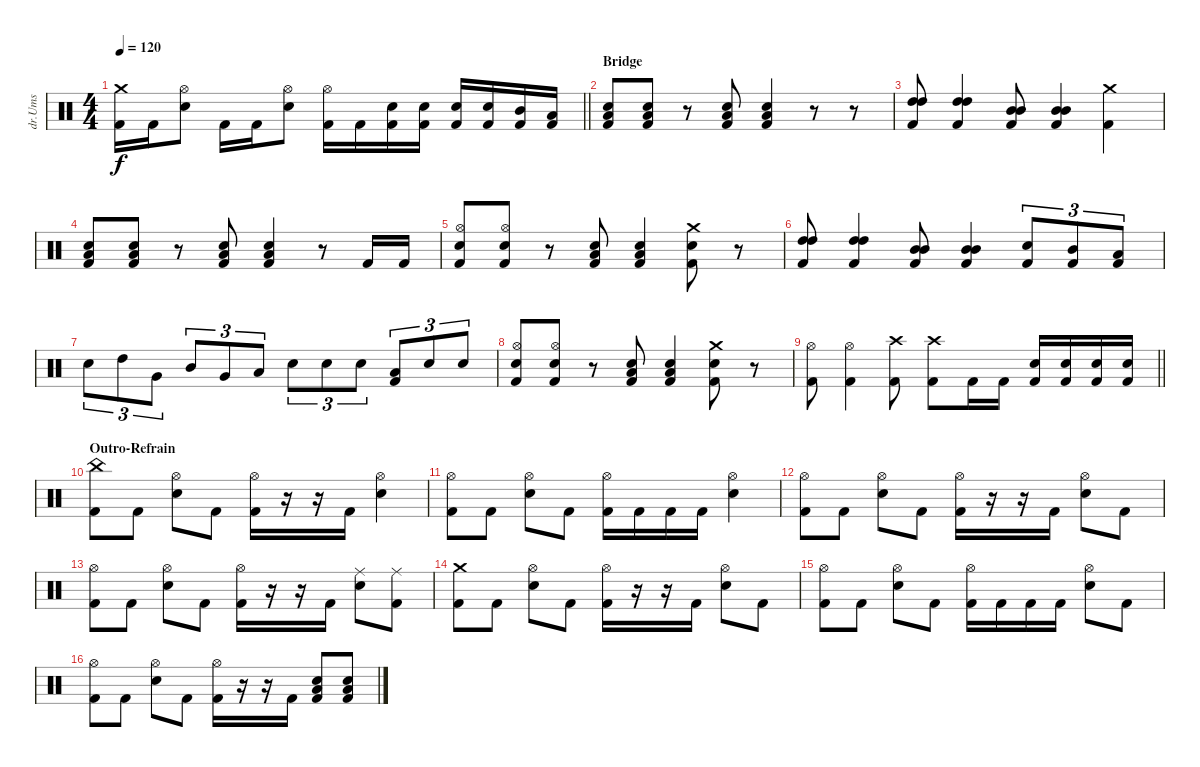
\track ("dr.Ums" "dr.Ums") {instrument percussion}
\staff {score}
\articulation defaults
\ts (4 4)
\tempo 120
\clef neutral
\barLineRight lightlight
\ks c
("Crash medium (hit)" "Kick (hit) 2").16{dy f} "Kick (hit) 2".16 ("Hi-Hat (open)" "Snare (hit) 2").8 "Kick (hit) 2".16 "Kick (hit) 2".16 ("Hi-Hat (open)" "Snare (hit) 2").8 ("Kick (hit) 2" "Hi-Hat (open)").16 "Kick (hit) 2".16 ("Snare (hit) 2" "Kick (hit) 2").16 ("Snare (hit) 2" "Kick (hit) 2").16 ("Snare (hit) 2" "Kick (hit) 2").16 ("Snare (hit) 2" "Kick (hit) 2").16 ("Mid Tom (hit)" "Kick (hit) 2").16 ("Low Tom (hit)" "Kick (hit) 2").16 |
\section ("" "Bridge")
("Snare (hit) 2" "Low Floor Tom (hit)" "Kick (hit) 2").8 ("Snare (hit) 2" "Low Floor Tom (hit)" "Kick (hit) 2").8 r.8 ("Snare (hit) 2" "Low Floor Tom (hit)" "Kick (hit) 2").8 ("Snare (hit) 2" "Low Floor Tom (hit)" "Kick (hit) 2").4 r.8 r.8 |
("High Tom (hit)" "High Tom (hit)" "Kick (hit) 2").8 ("High Tom (hit)" "High Tom (hit)" "Kick (hit) 2").4 ("Mid Tom (hit)" "Mid Tom (hit)" "Kick (hit) 2").8 ("Mid Tom (hit)" "Mid Tom (hit)" "Kick (hit) 2").4 ("Crash medium (hit)" "Kick (hit) 2").4 |
("Snare (hit) 2" "Low Floor Tom (hit)" "Kick (hit) 2").8 ("Snare (hit) 2" "Low Floor Tom (hit)" "Kick (hit) 2").8 r.8 ("Snare (hit) 2" "Low Floor Tom (hit)" "Kick (hit) 2").8 ("Snare (hit) 2" "Low Floor Tom (hit)" "Kick (hit) 2").4 r.8 "Kick (hit) 2".16 "Kick (hit) 2".16 |
("Snare (hit) 2" "Hi-Hat (open)" "Kick (hit) 2").8 ("Snare (hit) 2" "Hi-Hat (open)" "Kick (hit) 2").8 r.8 ("Snare (hit) 2" "Low Floor Tom (hit)" "Kick (hit) 2").8 ("Snare (hit) 2" "Low Floor Tom (hit)" "Kick (hit) 2").4 ("Crash medium (hit)" "Snare (hit) 2" "Kick (hit) 2").8 r.8 |
("High Tom (hit)" "High Tom (hit)" "Kick (hit) 2").8 ("High Tom (hit)" "High Tom (hit)" "Kick (hit) 2").4 ("Mid Tom (hit)" "Mid Tom (hit)" "Kick (hit) 2").8 ("Mid Tom (hit)" "Mid Tom (hit)" "Kick (hit) 2").4 ("Snare (hit) 2" "Kick (hit) 2").8{tu (3 2)} ("Mid Tom (hit)" "Kick (hit) 2").8{tu (3 2)} ("Low Tom (hit)" "Kick (hit) 2").8{tu (3 2)} |
"Snare (hit) 2".8{tu (3 2)} "High Tom (hit)".8{tu (3 2)} "Very Low Tom (hit)".8{tu (3 2)} "Mid Tom (hit)".8{tu (3 2)} "Very Low Tom (hit)".8{tu (3 2)} "Low Tom (hit)".8{tu (3 2)} "Snare (hit) 2".8{tu (3 2)} "Snare (hit) 2".8{tu (3 2)} "Snare (hit) 2".8{tu (3 2)} ("Kick (hit) 2" "Low Floor Tom (hit)").8{tu (3 2)} "Snare (hit) 2".8{tu (3 2)} "Snare (hit) 2".8{tu (3 2)} |
("Snare (hit) 2" "Hi-Hat (open)" "Kick (hit) 2").8 ("Snare (hit) 2" "Hi-Hat (open)" "Kick (hit) 2").8 r.8 ("Snare (hit) 2" "Low Floor Tom (hit)" "Kick (hit) 2").8 ("Snare (hit) 2" "Low Floor Tom (hit)" "Kick (hit) 2").4 ("Crash medium (hit)" "Snare (hit) 2" "Kick (hit) 2").8 r.8 |
\barLineRight lightlight
("Hi-Hat (open)" "Kick (hit) 2").8 ("Hi-Hat (open)" "Kick (hit) 2").4 ("Crash high (hit)" "Kick (hit) 2").8 ("Crash high (hit)" "Kick (hit) 2").8 "Kick (hit) 2".16 "Kick (hit) 2".16 ("Snare (hit) 2" "Kick (hit) 2").16 ("Snare (hit) 2" "Kick (hit) 2").16 ("Snare (hit) 2" "Kick (hit) 2").16 ("Snare (hit) 2" "Kick (hit) 2").16 |
\section ("" "Outro-Refrain")
("Kick (hit) 2" "China (hit)").8 "Kick (hit) 2".8 ("Snare (hit) 2" "Hi-Hat (open)").8 "Kick (hit) 2".8 ("Kick (hit) 2" "Hi-Hat (open)").16 r.16 r.16 "Kick (hit) 2".16 ("Snare (hit) 2" "Hi-Hat (open)").4 |
("Kick (hit) 2" "Hi-Hat (open)").8 "Kick (hit) 2".8 ("Snare (hit) 2" "Hi-Hat (open)").8 "Kick (hit) 2".8 ("Kick (hit) 2" "Hi-Hat (open)").16 "Kick (hit) 2".16 "Kick (hit) 2".16 "Kick (hit) 2".16 ("Snare (hit) 2" "Hi-Hat (open)").4 |
("Kick (hit) 2" "Hi-Hat (open)").8 "Kick (hit) 2".8 ("Snare (hit) 2" "Hi-Hat (open)").8 "Kick (hit) 2".8 ("Kick (hit) 2" "Hi-Hat (open)").16 r.16 r.16 "Kick (hit) 2".16 ("Snare (hit) 2" "Hi-Hat (open)").8 "Kick (hit) 2".8 |
("Kick (hit) 2" "Hi-Hat (open)").8 "Kick (hit) 2".8 ("Snare (hit) 2" "Hi-Hat (open)").8 "Kick (hit) 2".8 ("Kick (hit) 2" "Hi-Hat (open)").16 r.16 r.16 "Kick (hit) 2".16 ("Snare (hit) 2" "Ride (middle)").8 ("Kick (hit) 2" "Ride (middle)").8 |
("Kick (hit) 2" "Crash medium (hit)").8 "Kick (hit) 2".8 ("Snare (hit) 2" "Hi-Hat (open)").8 "Kick (hit) 2".8 ("Kick (hit) 2" "Hi-Hat (open)").16 r.16 r.16 "Kick (hit) 2".16 ("Snare (hit) 2" "Hi-Hat (open)").8 "Kick (hit) 2".8 |
("Kick (hit) 2" "Hi-Hat (open)").8 "Kick (hit) 2".8 ("Snare (hit) 2" "Hi-Hat (open)").8 "Kick (hit) 2".8 ("Kick (hit) 2" "Hi-Hat (open)").16 "Kick (hit) 2".16 "Kick (hit) 2".16 "Kick (hit) 2".16 ("Snare (hit) 2" "Hi-Hat (open)").8 "Kick (hit) 2".8 |
("Kick (hit) 2" "Hi-Hat (open)").8 "Kick (hit) 2".8 ("Snare (hit) 2" "Hi-Hat (open)").8 "Kick (hit) 2".8 ("Kick (hit) 2" "Hi-Hat (open)").16 r.16 r.16 "Kick (hit) 2".16 ("Kick (hit) 2" "Low Tom (hit)" "Snare (hit) 2").8 ("Kick (hit) 2" "Low Tom (hit)" "Snare (hit) 2").8
